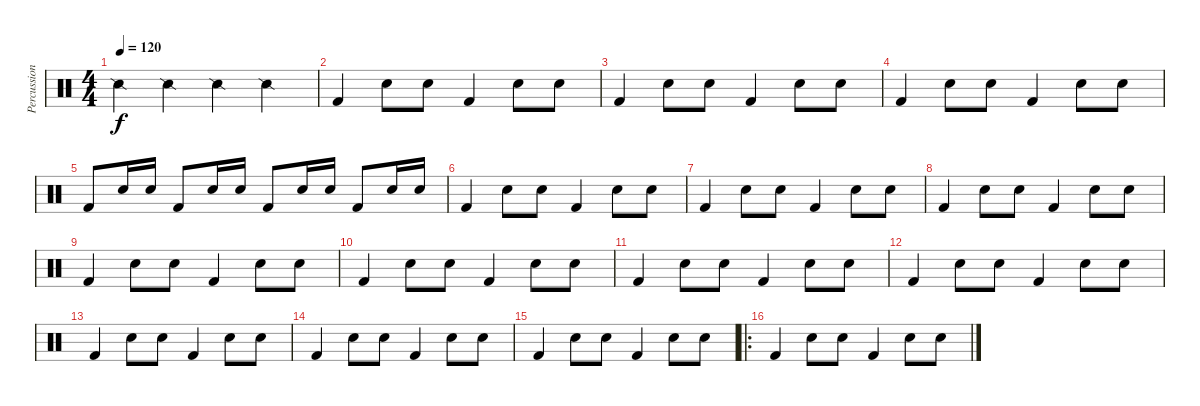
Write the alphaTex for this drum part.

\track ("Percussion" "Percussion") {instrument percussion}
\staff {score}
\articulation defaults
\ts (4 4)
\tempo 120
\clef neutral
\ks c "Snare (side stick) 2".4{dy f} "Snare (side stick) 2".4 "Snare (side stick) 2".4 "Snare (side stick) 2".4
|
"Kick (hit) 2".4 "Snare (hit) 2".8 "Snare (hit) 2".8 "Kick (hit) 2".4 "Snare (hit) 2".8 "Snare (hit) 2".8 |
"Kick (hit) 2".4 "Snare (hit) 2".8 "Snare (hit) 2".8 "Kick (hit) 2".4 "Snare (hit) 2".8 "Snare (hit) 2".8 |
"Kick (hit) 2".4 "Snare (hit) 2".8 "Snare (hit) 2".8 "Kick (hit) 2".4 "Snare (hit) 2".8 "Snare (hit) 2".8 |
"Kick (hit) 2".8 "Snare (hit) 2".16 "Snare (hit) 2".16 "Kick (hit) 2".8 "Snare (hit) 2".16 "Snare (hit) 2".16 "Kick (hit) 2".8 "Snare (hit) 2".16 "Snare (hit) 2".16 "Kick (hit) 2".8 "Snare (hit) 2".16 "Snare (hit) 2".16 |
"Kick (hit) 2".4 "Snare (hit) 2".8 "Snare (hit) 2".8 "Kick (hit) 2".4 "Snare (hit) 2".8 "Snare (hit) 2".8 |
"Kick (hit) 2".4 "Snare (hit) 2".8 "Snare (hit) 2".8 "Kick (hit) 2".4 "Snare (hit) 2".8 "Snare (hit) 2".8 |
"Kick (hit) 2".4 "Snare (hit) 2".8 "Snare (hit) 2".8 "Kick (hit) 2".4 "Snare (hit) 2".8 "Snare (hit) 2".8 |
"Kick (hit) 2".4 "Snare (hit) 2".8 "Snare (hit) 2".8 "Kick (hit) 2".4 "Snare (hit) 2".8 "Snare (hit) 2".8 |
"Kick (hit) 2".4 "Snare (hit) 2".8 "Snare (hit) 2".8 "Kick (hit) 2".4 "Snare (hit) 2".8 "Snare (hit) 2".8 |
"Kick (hit) 2".4 "Snare (hit) 2".8 "Snare (hit) 2".8 "Kick (hit) 2".4 "Snare (hit) 2".8 "Snare (hit) 2".8 |
"Kick (hit) 2".4 "Snare (hit) 2".8 "Snare (hit) 2".8 "Kick (hit) 2".4 "Snare (hit) 2".8 "Snare (hit) 2".8 |
"Kick (hit) 2".4 "Snare (hit) 2".8 "Snare (hit) 2".8 "Kick (hit) 2".4 "Snare (hit) 2".8 "Snare (hit) 2".8 |
"Kick (hit) 2".4 "Snare (hit) 2".8 "Snare (hit) 2".8 "Kick (hit) 2".4 "Snare (hit) 2".8 "Snare (hit) 2".8 |
"Kick (hit) 2".4 "Snare (hit) 2".8 "Snare (hit) 2".8 "Kick (hit) 2".4 "Snare (hit) 2".8 "Snare (hit) 2".8 |
\ro "Kick (hit) 2".4 "Snare (hit) 2".8 "Snare (hit) 2".8 "Kick (hit) 2".4 "Snare (hit) 2".8 "Snare (hit) 2".8
